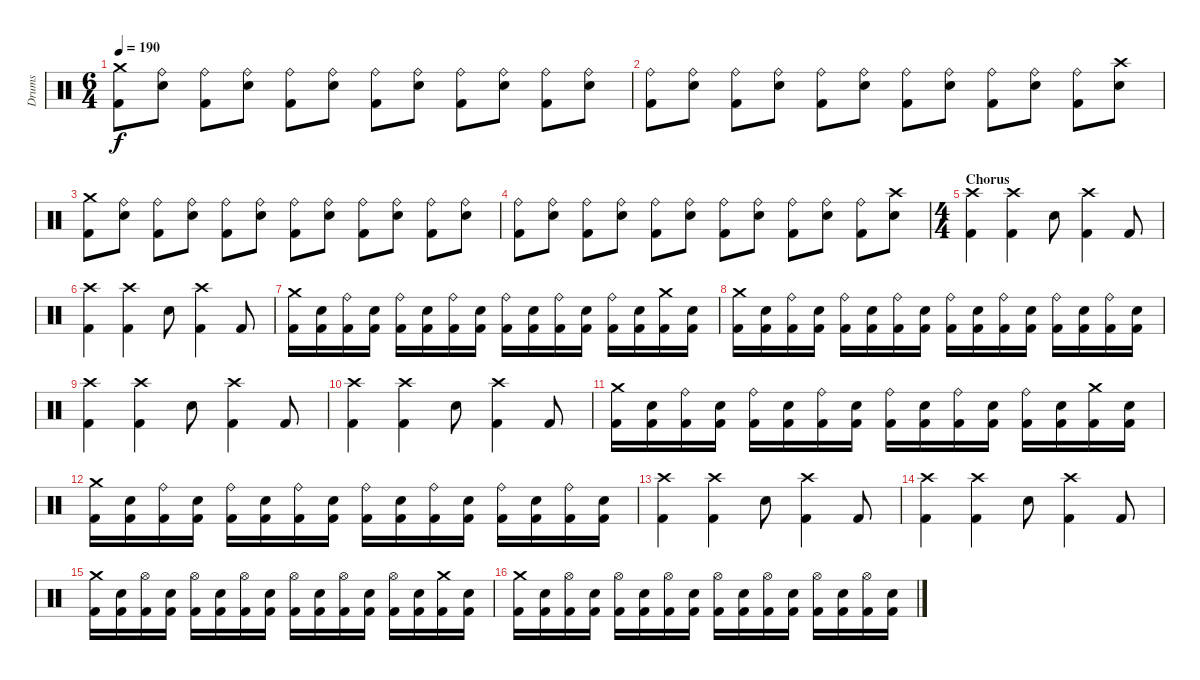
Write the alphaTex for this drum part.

\track ("Drums" "Drums") {instrument percussion}
\staff {score}
\articulation defaults
\ts (6 4)
\tempo 190
\clef neutral
\ks c
("Crash medium (hit)" "Kick (hit) 2").8{dy f} ("Ride (bell)" "Snare (hit) 2").8 ("Ride (bell)" "Kick (hit) 2").8 ("Ride (bell)" "Snare (hit) 2").8 ("Ride (bell)" "Kick (hit) 2").8 ("Ride (bell)" "Snare (hit) 2").8 ("Ride (bell)" "Kick (hit) 2").8 ("Ride (bell)" "Snare (hit) 2").8 ("Ride (bell)" "Kick (hit) 2").8 ("Ride (bell)" "Snare (hit) 2").8 ("Ride (bell)" "Kick (hit) 2").8 ("Ride (bell)" "Snare (hit) 2").8 |
("Ride (bell)" "Kick (hit) 2").8 ("Ride (bell)" "Snare (hit) 2").8 ("Ride (bell)" "Kick (hit) 2").8 ("Ride (bell)" "Snare (hit) 2").8 ("Ride (bell)" "Kick (hit) 2").8 ("Ride (bell)" "Snare (hit) 2").8 ("Ride (bell)" "Kick (hit) 2").8 ("Ride (bell)" "Snare (hit) 2").8 ("Ride (bell)" "Kick (hit) 2").8 ("Ride (bell)" "Snare (hit) 2").8 ("Ride (bell)" "Kick (hit) 2").8 ("Crash high (hit)" "Snare (hit) 2").8 |
("Crash medium (hit)" "Kick (hit) 2").8 ("Ride (bell)" "Snare (hit) 2").8 ("Ride (bell)" "Kick (hit) 2").8 ("Ride (bell)" "Snare (hit) 2").8 ("Ride (bell)" "Kick (hit) 2").8 ("Ride (bell)" "Snare (hit) 2").8 ("Ride (bell)" "Kick (hit) 2").8 ("Ride (bell)" "Snare (hit) 2").8 ("Ride (bell)" "Kick (hit) 2").8 ("Ride (bell)" "Snare (hit) 2").8 ("Ride (bell)" "Kick (hit) 2").8 ("Ride (bell)" "Snare (hit) 2").8 |
("Ride (bell)" "Kick (hit) 2").8 ("Ride (bell)" "Snare (hit) 2").8 ("Ride (bell)" "Kick (hit) 2").8 ("Ride (bell)" "Snare (hit) 2").8 ("Ride (bell)" "Kick (hit) 2").8 ("Ride (bell)" "Snare (hit) 2").8 ("Ride (bell)" "Kick (hit) 2").8 ("Ride (bell)" "Snare (hit) 2").8 ("Ride (bell)" "Kick (hit) 2").8 ("Ride (bell)" "Snare (hit) 2").8 ("Ride (bell)" "Kick (hit) 2").8 ("Crash high (hit)" "Snare (hit) 2").8 |
\ts (4 4)
\section ("" "Chorus")
("Crash high (hit)" "Kick (hit) 2").4 ("Crash high (hit)" "Kick (hit) 2").4 "Snare (hit) 2".8 ("Crash high (hit)" "Kick (hit) 2").4 "Kick (hit) 2".8 |
("Crash high (hit)" "Kick (hit) 2").4 ("Crash high (hit)" "Kick (hit) 2").4 "Snare (hit) 2".8 ("Crash high (hit)" "Kick (hit) 2").4 "Kick (hit) 2".8 |
("Crash medium (hit)" "Kick (hit) 2").16 ("Snare (hit) 2" "Kick (hit) 2").16 ("Ride (bell)" "Kick (hit) 2").16 ("Snare (hit) 2" "Kick (hit) 2").16 ("Ride (bell)" "Kick (hit) 2").16 ("Snare (hit) 2" "Kick (hit) 2").16 ("Ride (bell)" "Kick (hit) 2").16 ("Snare (hit) 2" "Kick (hit) 2").16 ("Ride (bell)" "Kick (hit) 2").16 ("Snare (hit) 2" "Kick (hit) 2").16 ("Ride (bell)" "Kick (hit) 2").16 ("Snare (hit) 2" "Kick (hit) 2").16 ("Ride (bell)" "Kick (hit) 2").16 ("Snare (hit) 2" "Kick (hit) 2").16 ("Crash medium (hit)" "Kick (hit) 2").16 ("Snare (hit) 2" "Kick (hit) 2").16 |
("Crash medium (hit)" "Kick (hit) 2").16 ("Snare (hit) 2" "Kick (hit) 2").16 ("Ride (bell)" "Kick (hit) 2").16 ("Snare (hit) 2" "Kick (hit) 2").16 ("Ride (bell)" "Kick (hit) 2").16 ("Snare (hit) 2" "Kick (hit) 2").16 ("Ride (bell)" "Kick (hit) 2").16 ("Snare (hit) 2" "Kick (hit) 2").16 ("Ride (bell)" "Kick (hit) 2").16 ("Snare (hit) 2" "Kick (hit) 2").16 ("Ride (bell)" "Kick (hit) 2").16 ("Snare (hit) 2" "Kick (hit) 2").16 ("Ride (bell)" "Kick (hit) 2").16 ("Snare (hit) 2" "Kick (hit) 2").16 ("Ride (bell)" "Kick (hit) 2").16 ("Snare (hit) 2" "Kick (hit) 2").16 |
("Crash high (hit)" "Kick (hit) 2").4 ("Crash high (hit)" "Kick (hit) 2").4 "Snare (hit) 2".8 ("Crash high (hit)" "Kick (hit) 2").4 "Kick (hit) 2".8 |
("Crash high (hit)" "Kick (hit) 2").4 ("Crash high (hit)" "Kick (hit) 2").4 "Snare (hit) 2".8 ("Crash high (hit)" "Kick (hit) 2").4 "Kick (hit) 2".8 |
("Crash medium (hit)" "Kick (hit) 2").16 ("Snare (hit) 2" "Kick (hit) 2").16 ("Ride (bell)" "Kick (hit) 2").16 ("Snare (hit) 2" "Kick (hit) 2").16 ("Ride (bell)" "Kick (hit) 2").16 ("Snare (hit) 2" "Kick (hit) 2").16 ("Ride (bell)" "Kick (hit) 2").16 ("Snare (hit) 2" "Kick (hit) 2").16 ("Ride (bell)" "Kick (hit) 2").16 ("Snare (hit) 2" "Kick (hit) 2").16 ("Ride (bell)" "Kick (hit) 2").16 ("Snare (hit) 2" "Kick (hit) 2").16 ("Ride (bell)" "Kick (hit) 2").16 ("Snare (hit) 2" "Kick (hit) 2").16 ("Crash medium (hit)" "Kick (hit) 2").16 ("Snare (hit) 2" "Kick (hit) 2").16 |
("Crash medium (hit)" "Kick (hit) 2").16 ("Snare (hit) 2" "Kick (hit) 2").16 ("Ride (bell)" "Kick (hit) 2").16 ("Snare (hit) 2" "Kick (hit) 2").16 ("Ride (bell)" "Kick (hit) 2").16 ("Snare (hit) 2" "Kick (hit) 2").16 ("Ride (bell)" "Kick (hit) 2").16 ("Snare (hit) 2" "Kick (hit) 2").16 ("Ride (bell)" "Kick (hit) 2").16 ("Snare (hit) 2" "Kick (hit) 2").16 ("Ride (bell)" "Kick (hit) 2").16 ("Snare (hit) 2" "Kick (hit) 2").16 ("Ride (bell)" "Kick (hit) 2").16 ("Snare (hit) 2" "Kick (hit) 2").16 ("Ride (bell)" "Kick (hit) 2").16 ("Snare (hit) 2" "Kick (hit) 2").16 |
("Crash high (hit)" "Kick (hit) 2").4 ("Crash high (hit)" "Kick (hit) 2").4 "Snare (hit) 2".8 ("Crash high (hit)" "Kick (hit) 2").4 "Kick (hit) 2".8 |
("Crash high (hit)" "Kick (hit) 2").4 ("Crash high (hit)" "Kick (hit) 2").4 "Snare (hit) 2".8 ("Crash high (hit)" "Kick (hit) 2").4 "Kick (hit) 2".8 |
("Crash medium (hit)" "Kick (hit) 2").16 ("Snare (hit) 2" "Kick (hit) 2").16 ("Hi-Hat (open)" "Kick (hit) 2").16 ("Snare (hit) 2" "Kick (hit) 2").16 ("Hi-Hat (open)" "Kick (hit) 2").16 ("Snare (hit) 2" "Kick (hit) 2").16 ("Hi-Hat (open)" "Kick (hit) 2").16 ("Snare (hit) 2" "Kick (hit) 2").16 ("Hi-Hat (open)" "Kick (hit) 2").16 ("Snare (hit) 2" "Kick (hit) 2").16 ("Hi-Hat (open)" "Kick (hit) 2").16 ("Snare (hit) 2" "Kick (hit) 2").16 ("Hi-Hat (open)" "Kick (hit) 2").16 ("Snare (hit) 2" "Kick (hit) 2").16 ("Crash medium (hit)" "Kick (hit) 2").16 ("Snare (hit) 2" "Kick (hit) 2").16 |
("Crash medium (hit)" "Kick (hit) 2").16 ("Snare (hit) 2" "Kick (hit) 2").16 ("Hi-Hat (open)" "Kick (hit) 2").16 ("Snare (hit) 2" "Kick (hit) 2").16 ("Hi-Hat (open)" "Kick (hit) 2").16 ("Snare (hit) 2" "Kick (hit) 2").16 ("Hi-Hat (open)" "Kick (hit) 2").16 ("Snare (hit) 2" "Kick (hit) 2").16 ("Hi-Hat (open)" "Kick (hit) 2").16 ("Snare (hit) 2" "Kick (hit) 2").16 ("Hi-Hat (open)" "Kick (hit) 2").16 ("Snare (hit) 2" "Kick (hit) 2").16 ("Hi-Hat (open)" "Kick (hit) 2").16 ("Snare (hit) 2" "Kick (hit) 2").16 ("Hi-Hat (open)" "Kick (hit) 2").16 ("Snare (hit) 2" "Kick (hit) 2").16
